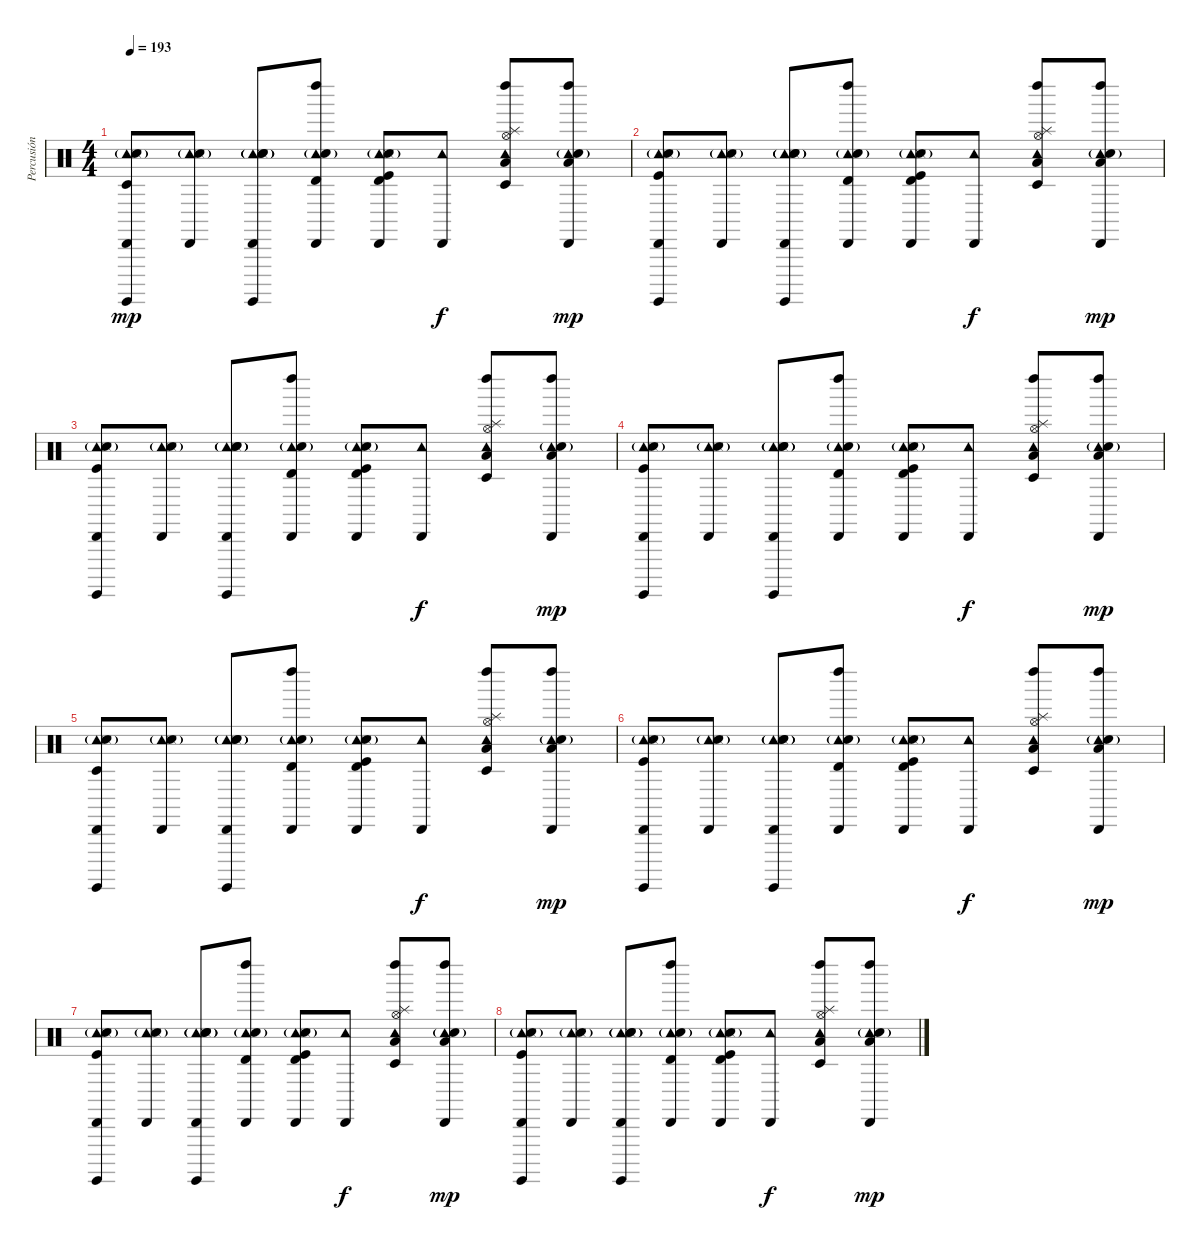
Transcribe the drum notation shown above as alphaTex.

\track ("Percusión" "Percusión") {instrument percussion}
\staff {score}
\articulation defaults
\ts (4 4)
\tempo 193
\clef neutral
\ks c
("Cabasa (hit)" "Tambourine (hit)" "Hand Clap (hit)"{g} "Metronome (hit)" "Surdo (hit)" "Timbale low (hit)").8{dy mp} ("Cabasa (hit)" "Tambourine (hit)" "Hand Clap (hit)"{g} "Metronome (hit)").8 ("Cabasa (hit)" "Tambourine (hit)" "Hand Clap (hit)"{g} "Metronome (hit)" "Surdo (hit)" "Electric Snare (hit)"{g}).8 ("Cabasa (hit)" "Tambourine (hit)" "Left Maraca (hit)" "Timbale high (hit)" "Electric Snare (hit)"{g}).8 ("Cabasa (hit)" "Tambourine (hit)" "Hand Clap (hit)"{g} "Metronome (hit)" "Timbale high (hit)" "Kick (hit)").8 ("Cabasa (hit)" "Tambourine (hit)").8{dy f} ("Hi-Hat (open)" "Tambourine (hit)" "Left Maraca (hit)" "Splash (hit)" "Low Tom (hit)" "Timbale low (hit)").8 ("Cabasa (hit)" "Tambourine (hit)" "Left Maraca (hit)" "Low Tom (hit)" "Electric Snare (hit)"{g}).8{dy mp} |
("Cabasa (hit)" "Tambourine (hit)" "Hand Clap (hit)"{g} "Metronome (hit)" "Surdo (hit)" "Kick (hit)").8 ("Cabasa (hit)" "Tambourine (hit)" "Hand Clap (hit)"{g} "Metronome (hit)").8 ("Cabasa (hit)" "Tambourine (hit)" "Hand Clap (hit)"{g} "Metronome (hit)" "Surdo (hit)" "Electric Snare (hit)"{g}).8 ("Cabasa (hit)" "Tambourine (hit)" "Left Maraca (hit)" "Timbale high (hit)" "Electric Snare (hit)"{g}).8 ("Cabasa (hit)" "Tambourine (hit)" "Hand Clap (hit)"{g} "Metronome (hit)" "Timbale high (hit)" "Kick (hit)").8 ("Cabasa (hit)" "Tambourine (hit)").8{dy f} ("Hi-Hat (open)" "Tambourine (hit)" "Left Maraca (hit)" "Splash (hit)" "Low Tom (hit)" "Timbale low (hit)").8 ("Cabasa (hit)" "Tambourine (hit)" "Left Maraca (hit)" "Low Tom (hit)" "Electric Snare (hit)"{g}).8{dy mp} |
("Cabasa (hit)" "Tambourine (hit)" "Hand Clap (hit)"{g} "Metronome (hit)" "Surdo (hit)" "Kick (hit)").8 ("Cabasa (hit)" "Tambourine (hit)" "Hand Clap (hit)"{g} "Metronome (hit)").8 ("Cabasa (hit)" "Tambourine (hit)" "Hand Clap (hit)"{g} "Metronome (hit)" "Surdo (hit)" "Electric Snare (hit)"{g}).8 ("Cabasa (hit)" "Tambourine (hit)" "Left Maraca (hit)" "Timbale high (hit)" "Electric Snare (hit)"{g}).8 ("Cabasa (hit)" "Tambourine (hit)" "Hand Clap (hit)"{g} "Metronome (hit)" "Timbale high (hit)" "Kick (hit)").8 ("Cabasa (hit)" "Tambourine (hit)").8{dy f} ("Hi-Hat (open)" "Tambourine (hit)" "Left Maraca (hit)" "Splash (hit)" "Low Tom (hit)" "Timbale low (hit)").8 ("Cabasa (hit)" "Tambourine (hit)" "Left Maraca (hit)" "Low Tom (hit)" "Electric Snare (hit)"{g}).8{dy mp} |
("Cabasa (hit)" "Tambourine (hit)" "Hand Clap (hit)"{g} "Metronome (hit)" "Surdo (hit)" "Kick (hit)").8 ("Cabasa (hit)" "Tambourine (hit)" "Hand Clap (hit)"{g} "Metronome (hit)").8 ("Cabasa (hit)" "Tambourine (hit)" "Hand Clap (hit)"{g} "Metronome (hit)" "Surdo (hit)" "Electric Snare (hit)"{g}).8 ("Cabasa (hit)" "Tambourine (hit)" "Left Maraca (hit)" "Timbale high (hit)" "Electric Snare (hit)"{g}).8 ("Cabasa (hit)" "Tambourine (hit)" "Hand Clap (hit)"{g} "Metronome (hit)" "Timbale high (hit)" "Kick (hit)").8 ("Cabasa (hit)" "Tambourine (hit)").8{dy f} ("Hi-Hat (open)" "Tambourine (hit)" "Left Maraca (hit)" "Splash (hit)" "Low Tom (hit)" "Timbale low (hit)").8 ("Cabasa (hit)" "Tambourine (hit)" "Left Maraca (hit)" "Low Tom (hit)" "Electric Snare (hit)"{g}).8{dy mp} |
("Cabasa (hit)" "Tambourine (hit)" "Hand Clap (hit)"{g} "Metronome (hit)" "Surdo (hit)" "Timbale low (hit)").8 ("Cabasa (hit)" "Tambourine (hit)" "Hand Clap (hit)"{g} "Metronome (hit)").8 ("Cabasa (hit)" "Tambourine (hit)" "Hand Clap (hit)"{g} "Metronome (hit)" "Surdo (hit)" "Electric Snare (hit)"{g}).8 ("Cabasa (hit)" "Tambourine (hit)" "Left Maraca (hit)" "Timbale high (hit)" "Electric Snare (hit)"{g}).8 ("Cabasa (hit)" "Tambourine (hit)" "Hand Clap (hit)"{g} "Metronome (hit)" "Timbale high (hit)" "Kick (hit)").8 ("Cabasa (hit)" "Tambourine (hit)").8{dy f} ("Hi-Hat (open)" "Tambourine (hit)" "Left Maraca (hit)" "Splash (hit)" "Low Tom (hit)" "Timbale low (hit)").8 ("Cabasa (hit)" "Tambourine (hit)" "Left Maraca (hit)" "Low Tom (hit)" "Electric Snare (hit)"{g}).8{dy mp} |
("Cabasa (hit)" "Tambourine (hit)" "Hand Clap (hit)"{g} "Metronome (hit)" "Surdo (hit)" "Kick (hit)").8 ("Cabasa (hit)" "Tambourine (hit)" "Hand Clap (hit)"{g} "Metronome (hit)").8 ("Cabasa (hit)" "Tambourine (hit)" "Hand Clap (hit)"{g} "Metronome (hit)" "Surdo (hit)" "Electric Snare (hit)"{g}).8 ("Cabasa (hit)" "Tambourine (hit)" "Left Maraca (hit)" "Timbale high (hit)" "Electric Snare (hit)"{g}).8 ("Cabasa (hit)" "Tambourine (hit)" "Hand Clap (hit)"{g} "Metronome (hit)" "Timbale high (hit)" "Kick (hit)").8 ("Cabasa (hit)" "Tambourine (hit)").8{dy f} ("Hi-Hat (open)" "Tambourine (hit)" "Left Maraca (hit)" "Splash (hit)" "Low Tom (hit)" "Timbale low (hit)").8 ("Cabasa (hit)" "Tambourine (hit)" "Left Maraca (hit)" "Low Tom (hit)" "Electric Snare (hit)"{g}).8{dy mp} |
("Cabasa (hit)" "Tambourine (hit)" "Hand Clap (hit)"{g} "Metronome (hit)" "Surdo (hit)" "Kick (hit)").8 ("Cabasa (hit)" "Tambourine (hit)" "Hand Clap (hit)"{g} "Metronome (hit)").8 ("Cabasa (hit)" "Tambourine (hit)" "Hand Clap (hit)"{g} "Metronome (hit)" "Surdo (hit)" "Electric Snare (hit)"{g}).8 ("Cabasa (hit)" "Tambourine (hit)" "Left Maraca (hit)" "Timbale high (hit)" "Electric Snare (hit)"{g}).8 ("Cabasa (hit)" "Tambourine (hit)" "Hand Clap (hit)"{g} "Metronome (hit)" "Timbale high (hit)" "Kick (hit)").8 ("Cabasa (hit)" "Tambourine (hit)").8{dy f} ("Hi-Hat (open)" "Tambourine (hit)" "Left Maraca (hit)" "Splash (hit)" "Low Tom (hit)" "Timbale low (hit)").8 ("Cabasa (hit)" "Tambourine (hit)" "Left Maraca (hit)" "Low Tom (hit)" "Electric Snare (hit)"{g}).8{dy mp} |
("Cabasa (hit)" "Tambourine (hit)" "Hand Clap (hit)"{g} "Metronome (hit)" "Surdo (hit)" "Kick (hit)").8 ("Cabasa (hit)" "Tambourine (hit)" "Hand Clap (hit)"{g} "Metronome (hit)").8 ("Cabasa (hit)" "Tambourine (hit)" "Hand Clap (hit)"{g} "Metronome (hit)" "Surdo (hit)" "Electric Snare (hit)"{g}).8 ("Cabasa (hit)" "Tambourine (hit)" "Left Maraca (hit)" "Timbale high (hit)" "Electric Snare (hit)"{g}).8 ("Cabasa (hit)" "Tambourine (hit)" "Hand Clap (hit)"{g} "Metronome (hit)" "Timbale high (hit)" "Kick (hit)").8 ("Cabasa (hit)" "Tambourine (hit)").8{dy f} ("Hi-Hat (open)" "Tambourine (hit)" "Left Maraca (hit)" "Splash (hit)" "Low Tom (hit)" "Timbale low (hit)").8 ("Cabasa (hit)" "Tambourine (hit)" "Left Maraca (hit)" "Low Tom (hit)" "Electric Snare (hit)"{g}).8{dy mp}
